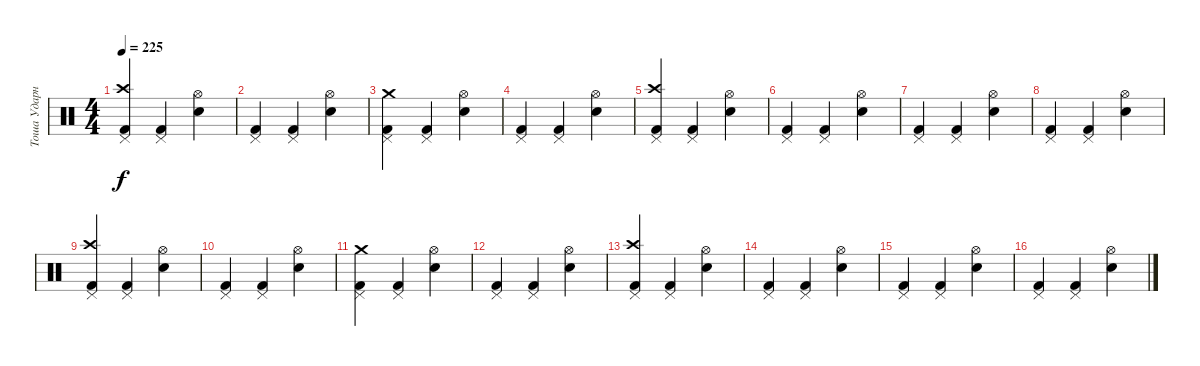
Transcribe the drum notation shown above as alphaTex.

\track ("Тоша Ударные" "Тоша Ударн") {instrument percussion}
\staff {score}
\articulation defaults
\ts (4 4)
\tempo 225
\clef neutral
\ks c
("Pedal Hi-Hat (hit)" "Crash high (hit)" "Kick (hit) 2").4{dy f} ("Pedal Hi-Hat (hit)" "Kick (hit) 2").4 ("Hi-Hat (open)" "Electric Snare (hit)").4 |
("Pedal Hi-Hat (hit)" "Kick (hit) 2").4 ("Pedal Hi-Hat (hit)" "Kick (hit) 2").4 ("Hi-Hat (open)" "Electric Snare (hit)").4 |
("Pedal Hi-Hat (hit)" "Crash medium (hit)" "Kick (hit) 2").4 ("Pedal Hi-Hat (hit)" "Kick (hit) 2").4 ("Hi-Hat (open)" "Electric Snare (hit)").4 |
("Pedal Hi-Hat (hit)" "Kick (hit) 2").4 ("Pedal Hi-Hat (hit)" "Kick (hit) 2").4 ("Hi-Hat (open)" "Electric Snare (hit)").4 |
("Crash high (hit)" "Pedal Hi-Hat (hit)" "Kick (hit) 2").4 ("Pedal Hi-Hat (hit)" "Kick (hit) 2").4 ("Hi-Hat (open)" "Electric Snare (hit)").4 |
("Pedal Hi-Hat (hit)" "Kick (hit) 2").4 ("Pedal Hi-Hat (hit)" "Kick (hit) 2").4 ("Hi-Hat (open)" "Electric Snare (hit)").4 |
("Pedal Hi-Hat (hit)" "Kick (hit) 2").4 ("Pedal Hi-Hat (hit)" "Kick (hit) 2").4 ("Hi-Hat (open)" "Electric Snare (hit)").4 |
("Pedal Hi-Hat (hit)" "Kick (hit) 2").4 ("Pedal Hi-Hat (hit)" "Kick (hit) 2").4 ("Hi-Hat (open)" "Electric Snare (hit)").4 |
("Pedal Hi-Hat (hit)" "Crash high (hit)" "Kick (hit) 2").4 ("Pedal Hi-Hat (hit)" "Kick (hit) 2").4 ("Hi-Hat (open)" "Electric Snare (hit)").4 |
("Pedal Hi-Hat (hit)" "Kick (hit) 2").4 ("Pedal Hi-Hat (hit)" "Kick (hit) 2").4 ("Hi-Hat (open)" "Electric Snare (hit)").4 |
("Pedal Hi-Hat (hit)" "Crash medium (hit)" "Kick (hit) 2").4 ("Pedal Hi-Hat (hit)" "Kick (hit) 2").4 ("Hi-Hat (open)" "Electric Snare (hit)").4 |
("Pedal Hi-Hat (hit)" "Kick (hit) 2").4 ("Pedal Hi-Hat (hit)" "Kick (hit) 2").4 ("Hi-Hat (open)" "Electric Snare (hit)").4 |
("Pedal Hi-Hat (hit)" "Crash high (hit)" "Kick (hit) 2").4 ("Pedal Hi-Hat (hit)" "Kick (hit) 2").4 ("Hi-Hat (open)" "Electric Snare (hit)").4 |
("Pedal Hi-Hat (hit)" "Kick (hit) 2").4 ("Pedal Hi-Hat (hit)" "Kick (hit) 2").4 ("Hi-Hat (open)" "Electric Snare (hit)").4 |
("Pedal Hi-Hat (hit)" "Kick (hit) 2").4 ("Pedal Hi-Hat (hit)" "Kick (hit) 2").4 ("Hi-Hat (open)" "Electric Snare (hit)").4 |
("Pedal Hi-Hat (hit)" "Kick (hit) 2").4 ("Pedal Hi-Hat (hit)" "Kick (hit) 2").4 ("Hi-Hat (open)" "Electric Snare (hit)").4
